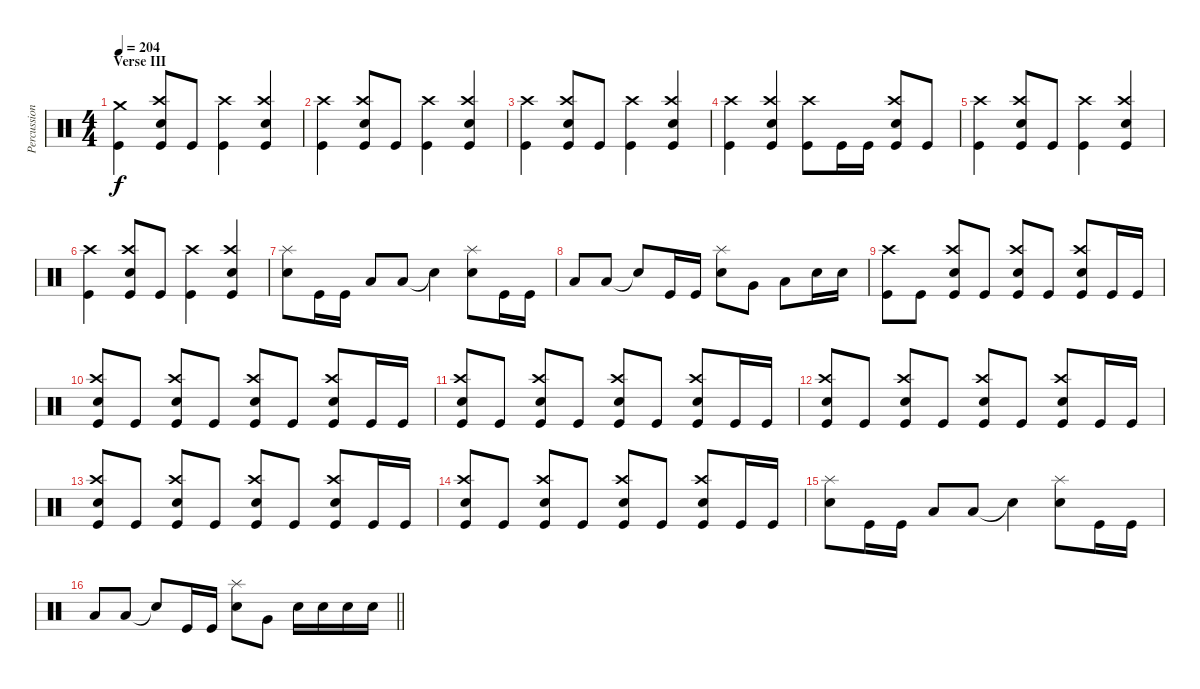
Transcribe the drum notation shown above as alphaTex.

\track ("Percussion" "Percussion") {instrument percussion}
\staff {score}
\articulation defaults
\ts (4 4)
\section ("" "Verse III")
\tempo 204
\clef neutral
\ks c
("Crash medium (hit)" "Kick (hit)").4{dy f} ("Crash high (hit)" "Electric Snare (hit)" "Kick (hit)").8 "Kick (hit)".8 ("Crash high (hit)" "Kick (hit)").4 ("Crash high (hit)" "Electric Snare (hit)" "Kick (hit)").4 |
("Crash high (hit)" "Kick (hit)").4 ("Crash high (hit)" "Electric Snare (hit)" "Kick (hit)").8 "Kick (hit)".8 ("Crash high (hit)" "Kick (hit)").4 ("Crash high (hit)" "Electric Snare (hit)" "Kick (hit)").4 |
("Crash high (hit)" "Kick (hit)").4 ("Crash high (hit)" "Electric Snare (hit)" "Kick (hit)").8 "Kick (hit)".8 ("Crash high (hit)" "Kick (hit)").4 ("Crash high (hit)" "Electric Snare (hit)" "Kick (hit)").4 |
("Crash high (hit)" "Kick (hit)").4 ("Crash high (hit)" "Electric Snare (hit)" "Kick (hit)").4 ("Crash high (hit)" "Kick (hit)").8 "Kick (hit)".16 "Kick (hit)".16 ("Crash high (hit)" "Electric Snare (hit)" "Kick (hit)").8 "Kick (hit)".8 |
("Crash high (hit)" "Kick (hit)").4 ("Crash high (hit)" "Electric Snare (hit)" "Kick (hit)").8 "Kick (hit)".8 ("Crash high (hit)" "Kick (hit)").4 ("Crash high (hit)" "Electric Snare (hit)" "Kick (hit)").4 |
("Crash high (hit)" "Kick (hit)").4 ("Crash high (hit)" "Electric Snare (hit)" "Kick (hit)").8 "Kick (hit)".8 ("Crash high (hit)" "Kick (hit)").4 ("Crash high (hit)" "Electric Snare (hit)" "Kick (hit)").4 |
("Splash (hit)" "Electric Snare (hit)").8 "Kick (hit)".16 "Kick (hit)".16 "Low Floor Tom (hit)".8 "Low Floor Tom (hit)".8 "Snare (hit)"{t}.4 ("Splash (hit)" "Electric Snare (hit)").8 "Kick (hit)".16 "Kick (hit)".16 |
"Low Floor Tom (hit)".8 "Low Floor Tom (hit)".8 "Snare (hit)"{t}.8 "Kick (hit)".16 "Kick (hit)".16 ("Splash (hit)" "Electric Snare (hit)").8 "Very Low Tom (hit)".8 "Low Floor Tom (hit)".8 "Electric Snare (hit)".16 "Electric Snare (hit)".16 |
("Crash high (hit)" "Kick (hit)").8 "Kick (hit)".8 ("Crash high (hit)" "Electric Snare (hit)" "Kick (hit)").8 "Kick (hit)".8 ("Crash high (hit)" "Electric Snare (hit)" "Kick (hit)").8 "Kick (hit)".8 ("Crash high (hit)" "Electric Snare (hit)" "Kick (hit)").8 "Kick (hit)".16 "Kick (hit)".16 |
("Crash high (hit)" "Electric Snare (hit)" "Kick (hit)").8 "Kick (hit)".8 ("Crash high (hit)" "Electric Snare (hit)" "Kick (hit)").8 "Kick (hit)".8 ("Crash high (hit)" "Electric Snare (hit)" "Kick (hit)").8 "Kick (hit)".8 ("Crash high (hit)" "Electric Snare (hit)" "Kick (hit)").8 "Kick (hit)".16 "Kick (hit)".16 |
("Crash high (hit)" "Electric Snare (hit)" "Kick (hit)").8 "Kick (hit)".8 ("Crash high (hit)" "Electric Snare (hit)" "Kick (hit)").8 "Kick (hit)".8 ("Crash high (hit)" "Electric Snare (hit)" "Kick (hit)").8 "Kick (hit)".8 ("Crash high (hit)" "Electric Snare (hit)" "Kick (hit)").8 "Kick (hit)".16 "Kick (hit)".16 |
("Crash high (hit)" "Electric Snare (hit)" "Kick (hit)").8 "Kick (hit)".8 ("Crash high (hit)" "Electric Snare (hit)" "Kick (hit)").8 "Kick (hit)".8 ("Crash high (hit)" "Electric Snare (hit)" "Kick (hit)").8 "Kick (hit)".8 ("Crash high (hit)" "Electric Snare (hit)" "Kick (hit)").8 "Kick (hit)".16 "Kick (hit)".16 |
("Crash high (hit)" "Electric Snare (hit)" "Kick (hit)").8 "Kick (hit)".8 ("Crash high (hit)" "Electric Snare (hit)" "Kick (hit)").8 "Kick (hit)".8 ("Crash high (hit)" "Electric Snare (hit)" "Kick (hit)").8 "Kick (hit)".8 ("Crash high (hit)" "Electric Snare (hit)" "Kick (hit)").8 "Kick (hit)".16 "Kick (hit)".16 |
("Crash high (hit)" "Electric Snare (hit)" "Kick (hit)").8 "Kick (hit)".8 ("Crash high (hit)" "Electric Snare (hit)" "Kick (hit)").8 "Kick (hit)".8 ("Crash high (hit)" "Electric Snare (hit)" "Kick (hit)").8 "Kick (hit)".8 ("Crash high (hit)" "Electric Snare (hit)" "Kick (hit)").8 "Kick (hit)".16 "Kick (hit)".16 |
("Splash (hit)" "Electric Snare (hit)").8 "Kick (hit)".16 "Kick (hit)".16 "Low Floor Tom (hit)".8 "Low Floor Tom (hit)".8 "Snare (hit)"{t}.4 ("Splash (hit)" "Electric Snare (hit)").8 "Kick (hit)".16 "Kick (hit)".16 |
\barLineRight lightlight "Low Floor Tom (hit)".8 "Low Floor Tom (hit)".8 "Snare (hit)"{t}.8 "Kick (hit)".16 "Kick (hit)".16
("Splash (hit)" "Electric Snare (hit)").8 "Very Low Tom (hit)".8 "Electric Snare (hit)".16 "Electric Snare (hit)".16 "Electric Snare (hit)".16 "Electric Snare (hit)".16
